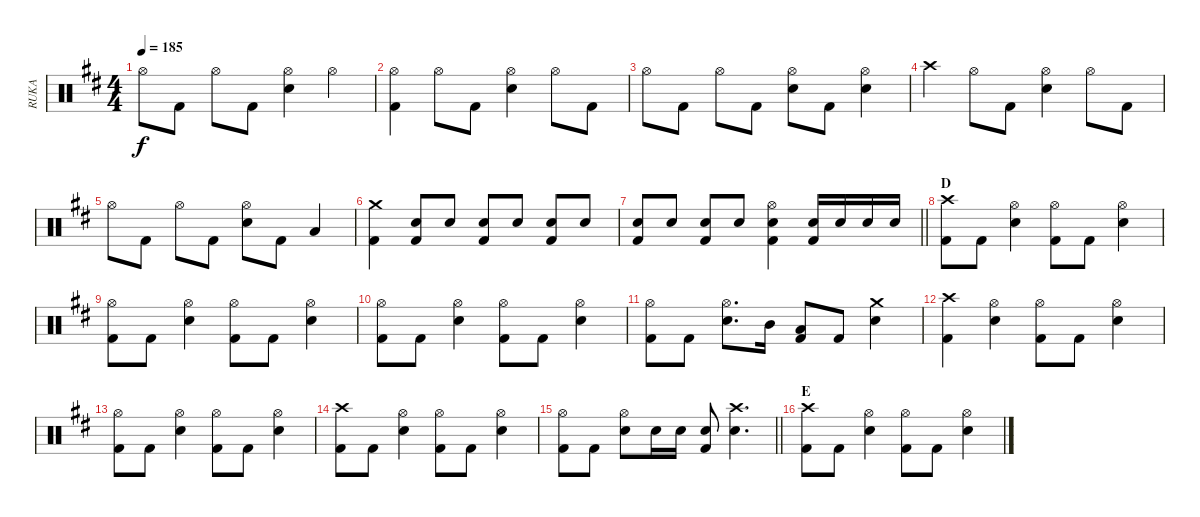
\track ("RUKA" "RUKA") {instrument percussion}
\staff {score}
\articulation defaults
\ts (4 4)
\tempo 185
\clef neutral
\ks d "Hi-Hat (open)".8{dy f} "Kick (hit) 2".8 "Hi-Hat (open)".8 "Kick (hit) 2".8
("Hi-Hat (open)" "Snare (hit) 2").4 "Hi-Hat (open)".4 |
("Hi-Hat (open)" "Kick (hit) 2").4 "Hi-Hat (open)".8 "Kick (hit) 2".8 ("Hi-Hat (open)" "Snare (hit) 2").4 "Hi-Hat (open)".8 "Kick (hit) 2".8 |
"Hi-Hat (open)".8 "Kick (hit) 2".8 "Hi-Hat (open)".8 "Kick (hit) 2".8 ("Hi-Hat (open)" "Snare (hit) 2").8 "Kick (hit) 2".8 ("Hi-Hat (open)" "Snare (hit) 2").4 |
"Crash high (hit)".4 "Hi-Hat (open)".8 "Kick (hit) 2".8 ("Hi-Hat (open)" "Snare (hit) 2").4 "Hi-Hat (open)".8 "Kick (hit) 2".8 |
"Hi-Hat (open)".8 "Kick (hit) 2".8 "Hi-Hat (open)".8 "Kick (hit) 2".8 ("Hi-Hat (open)" "Snare (hit) 2").8 "Kick (hit) 2".8 "Low Tom (hit)".4 |
("Crash medium (hit)" "Kick (hit) 2").4 ("Snare (hit) 2" "Kick (hit) 2").8 "Snare (hit) 2".8 ("Snare (hit) 2" "Kick (hit) 2").8 "Snare (hit) 2".8 ("Snare (hit) 2" "Kick (hit) 2").8 "Snare (hit) 2".8 |
\barLineRight lightlight
("Snare (hit) 2" "Kick (hit) 2").8 "Snare (hit) 2".8 ("Snare (hit) 2" "Kick (hit) 2").8 "Snare (hit) 2".8 ("Hi-Hat (open)" "Snare (hit) 2" "Kick (hit) 2").4 ("Snare (hit) 2" "Kick (hit) 2").16 "Snare (hit) 2".16 "Snare (hit) 2".16 "Snare (hit) 2".16 |
\section ("" "D")
("Crash high (hit)" "Kick (hit) 2").8 "Kick (hit) 2".8 ("Hi-Hat (open)" "Snare (hit) 2").4 ("Hi-Hat (open)" "Kick (hit) 2").8 "Kick (hit) 2".8 ("Hi-Hat (open)" "Snare (hit) 2").4 |
("Hi-Hat (open)" "Kick (hit) 2").8 "Kick (hit) 2".8 ("Hi-Hat (open)" "Snare (hit) 2").4 ("Hi-Hat (open)" "Kick (hit) 2").8 "Kick (hit) 2".8 ("Hi-Hat (open)" "Snare (hit) 2").4 |
("Hi-Hat (open)" "Kick (hit) 2").8 "Kick (hit) 2".8 ("Hi-Hat (open)" "Snare (hit) 2").4 ("Hi-Hat (open)" "Kick (hit) 2").8 "Kick (hit) 2".8 ("Hi-Hat (open)" "Snare (hit) 2").4 |
("Hi-Hat (open)" "Kick (hit) 2").8 "Kick (hit) 2".8 ("Hi-Hat (open)" "Snare (hit) 2").8{d} "Mid Tom (hit)".16 ("Low Tom (hit)" "Kick (hit) 2").8 "Kick (hit) 2".8 ("Crash medium (hit)" "Snare (hit) 2").4 |
("Crash high (hit)" "Kick (hit) 2").4 ("Hi-Hat (open)" "Snare (hit) 2").4 ("Hi-Hat (open)" "Kick (hit) 2").8 "Kick (hit) 2".8 ("Hi-Hat (open)" "Snare (hit) 2").4 |
("Hi-Hat (open)" "Kick (hit) 2").8 "Kick (hit) 2".8 ("Hi-Hat (open)" "Snare (hit) 2").4 ("Hi-Hat (open)" "Kick (hit) 2").8 "Kick (hit) 2".8 ("Hi-Hat (open)" "Snare (hit) 2").4 |
("Crash high (hit)" "Kick (hit) 2").8 "Kick (hit) 2".8 ("Hi-Hat (open)" "Snare (hit) 2").4 ("Hi-Hat (open)" "Kick (hit) 2").8 "Kick (hit) 2".8 ("Hi-Hat (open)" "Snare (hit) 2").4 |
\barLineRight lightlight
("Hi-Hat (open)" "Kick (hit) 2").8 "Kick (hit) 2".8 ("Hi-Hat (open)" "Snare (hit) 2").8 "Snare (hit) 2".16 "Snare (hit) 2".16 ("Snare (hit) 2" "Kick (hit) 2").8 ("Crash high (hit)" "Snare (hit) 2").4{d} |
\section ("" "E")
("Crash high (hit)" "Kick (hit) 2").8 "Kick (hit) 2".8 ("Hi-Hat (open)" "Snare (hit) 2").4 ("Hi-Hat (open)" "Kick (hit) 2").8 "Kick (hit) 2".8 ("Hi-Hat (open)" "Snare (hit) 2").4
